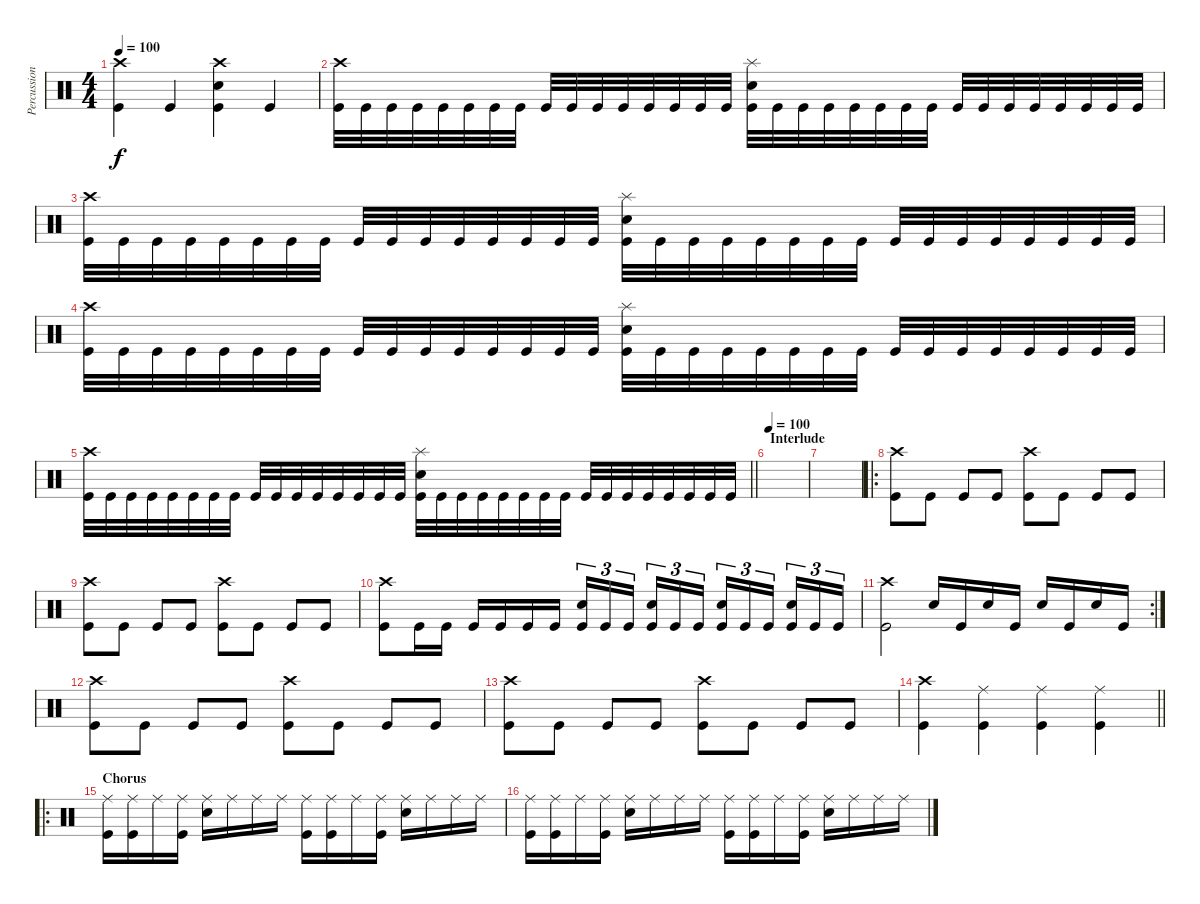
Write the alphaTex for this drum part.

\track ("Percussion" "Percussion") {instrument percussion}
\staff {score}
\articulation defaults
\ts (4 4)
\tempo 100
\clef neutral
\ks c
("Crash high (hit)" "Kick (hit)").4{dy f} "Kick (hit)".4 ("Crash high (hit)" "Electric Snare (hit)" "Kick (hit)").4 "Kick (hit)".4 |
("Crash high (hit)" "Kick (hit)").32 "Kick (hit)".32 "Kick (hit)".32 "Kick (hit)".32 "Kick (hit)".32 "Kick (hit)".32 "Kick (hit)".32 "Kick (hit)".32 "Kick (hit)".32 "Kick (hit)".32 "Kick (hit)".32 "Kick (hit)".32 "Kick (hit)".32 "Kick (hit)".32 "Kick (hit)".32 "Kick (hit)".32 ("Splash (hit)" "Electric Snare (hit)" "Kick (hit)").32 "Kick (hit)".32 "Kick (hit)".32 "Kick (hit)".32 "Kick (hit)".32 "Kick (hit)".32 "Kick (hit)".32 "Kick (hit)".32 "Kick (hit)".32 "Kick (hit)".32 "Kick (hit)".32 "Kick (hit)".32 "Kick (hit)".32 "Kick (hit)".32 "Kick (hit)".32 "Kick (hit)".32 |
("Crash high (hit)" "Kick (hit)").32 "Kick (hit)".32 "Kick (hit)".32 "Kick (hit)".32 "Kick (hit)".32 "Kick (hit)".32 "Kick (hit)".32 "Kick (hit)".32 "Kick (hit)".32 "Kick (hit)".32 "Kick (hit)".32 "Kick (hit)".32 "Kick (hit)".32 "Kick (hit)".32 "Kick (hit)".32 "Kick (hit)".32 ("Splash (hit)" "Electric Snare (hit)" "Kick (hit)").32 "Kick (hit)".32 "Kick (hit)".32 "Kick (hit)".32 "Kick (hit)".32 "Kick (hit)".32 "Kick (hit)".32 "Kick (hit)".32 "Kick (hit)".32 "Kick (hit)".32 "Kick (hit)".32 "Kick (hit)".32 "Kick (hit)".32 "Kick (hit)".32 "Kick (hit)".32 "Kick (hit)".32 |
("Crash high (hit)" "Kick (hit)").32 "Kick (hit)".32 "Kick (hit)".32 "Kick (hit)".32 "Kick (hit)".32 "Kick (hit)".32 "Kick (hit)".32 "Kick (hit)".32 "Kick (hit)".32 "Kick (hit)".32 "Kick (hit)".32 "Kick (hit)".32 "Kick (hit)".32 "Kick (hit)".32 "Kick (hit)".32 "Kick (hit)".32 ("Splash (hit)" "Electric Snare (hit)" "Kick (hit)").32 "Kick (hit)".32 "Kick (hit)".32 "Kick (hit)".32 "Kick (hit)".32 "Kick (hit)".32 "Kick (hit)".32 "Kick (hit)".32 "Kick (hit)".32 "Kick (hit)".32 "Kick (hit)".32 "Kick (hit)".32 "Kick (hit)".32 "Kick (hit)".32 "Kick (hit)".32 "Kick (hit)".32 |
\barLineRight lightlight
("Crash high (hit)" "Kick (hit)").32 "Kick (hit)".32 "Kick (hit)".32 "Kick (hit)".32 "Kick (hit)".32 "Kick (hit)".32 "Kick (hit)".32 "Kick (hit)".32 "Kick (hit)".32 "Kick (hit)".32 "Kick (hit)".32 "Kick (hit)".32 "Kick (hit)".32 "Kick (hit)".32 "Kick (hit)".32 "Kick (hit)".32 ("Splash (hit)" "Electric Snare (hit)" "Kick (hit)").32 "Kick (hit)".32 "Kick (hit)".32 "Kick (hit)".32 "Kick (hit)".32 "Kick (hit)".32 "Kick (hit)".32 "Kick (hit)".32 "Kick (hit)".32 "Kick (hit)".32 "Kick (hit)".32 "Kick (hit)".32 "Kick (hit)".32 "Kick (hit)".32 "Kick (hit)".32 "Kick (hit)".32 |
\section ("" "Interlude")
\tempo 100
|
|
\ro
("Crash high (hit)" "Kick (hit)").8 "Kick (hit)".8 "Kick (hit)".8 "Kick (hit)".8 ("Crash high (hit)" "Kick (hit)").8 "Kick (hit)".8 "Kick (hit)".8 "Kick (hit)".8 |
("Crash high (hit)" "Kick (hit)").8 "Kick (hit)".8 "Kick (hit)".8 "Kick (hit)".8 ("Crash high (hit)" "Kick (hit)").8 "Kick (hit)".8 "Kick (hit)".8 "Kick (hit)".8 |
("Crash high (hit)" "Kick (hit)").8 "Kick (hit)".16 "Kick (hit)".16 "Kick (hit)".16 "Kick (hit)".16 "Kick (hit)".16 "Kick (hit)".16 ("Electric Snare (hit)" "Kick (hit)").16{tu (3 2)} "Kick (hit)".16{tu (3 2)} "Kick (hit)".16{tu (3 2) beam splitsecondary} ("Electric Snare (hit)" "Kick (hit)").16{tu (3 2)} "Kick (hit)".16{tu (3 2)} "Kick (hit)".16{tu (3 2)} ("Electric Snare (hit)" "Kick (hit)").16{tu (3 2)} "Kick (hit)".16{tu (3 2)} "Kick (hit)".16{tu (3 2) beam splitsecondary} ("Electric Snare (hit)" "Kick (hit)").16{tu (3 2)} "Kick (hit)".16{tu (3 2)} "Kick (hit)".16{tu (3 2)} |
\rc 2
("Crash high (hit)" "Kick (hit)").2 "Electric Snare (hit)".16 "Kick (hit)".16 "Electric Snare (hit)".16 "Kick (hit)".16 "Electric Snare (hit)".16 "Kick (hit)".16 "Electric Snare (hit)".16 "Kick (hit)".16 |
("Crash high (hit)" "Kick (hit)").8 "Kick (hit)".8 "Kick (hit)".8 "Kick (hit)".8 ("Crash high (hit)" "Kick (hit)").8 "Kick (hit)".8 "Kick (hit)".8 "Kick (hit)".8 |
("Crash high (hit)" "Kick (hit)").8 "Kick (hit)".8 "Kick (hit)".8 "Kick (hit)".8 ("Crash high (hit)" "Kick (hit)").8 "Kick (hit)".8 "Kick (hit)".8 "Kick (hit)".8 |
\barLineRight lightlight
("Crash high (hit)" "Kick (hit)").4 ("Ride (middle)" "Kick (hit)").4 ("Ride (middle)" "Kick (hit)").4 ("Ride (middle)" "Kick (hit)").4 |
\ro
\section ("" "Chorus")
("Ride (middle)" "Kick (hit)").16 ("Ride (middle)" "Kick (hit)").16 "Ride (middle)".16 ("Ride (middle)" "Kick (hit)").16 ("Ride (middle)" "Electric Snare (hit)").16 "Ride (middle)".16 "Ride (middle)".16 "Ride (middle)".16 ("Ride (middle)" "Kick (hit)").16 ("Ride (middle)" "Kick (hit)").16 "Ride (middle)".16 ("Ride (middle)" "Kick (hit)").16 ("Ride (middle)" "Electric Snare (hit)").16 "Ride (middle)".16 "Ride (middle)".16 "Ride (middle)".16 |
("Ride (middle)" "Kick (hit)").16 ("Ride (middle)" "Kick (hit)").16 "Ride (middle)".16 ("Ride (middle)" "Kick (hit)").16 ("Ride (middle)" "Electric Snare (hit)").16 "Ride (middle)".16 "Ride (middle)".16 "Ride (middle)".16 ("Ride (middle)" "Kick (hit)").16 ("Ride (middle)" "Kick (hit)").16 "Ride (middle)".16 ("Ride (middle)" "Kick (hit)").16 ("Ride (middle)" "Electric Snare (hit)").16 "Ride (middle)".16 "Ride (middle)".16 "Ride (middle)".16
